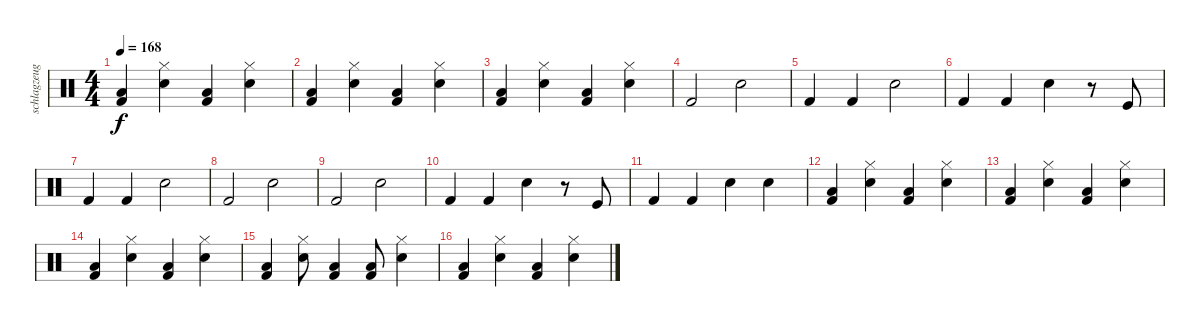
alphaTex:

\track ("schlagzeug" "schlagzeug") {instrument percussion}
\staff {score}
\articulation defaults
\ts (4 4)
\tempo 168
\clef neutral
\ks c
("Low Floor Tom (hit)" "Kick (hit) 2").4{dy f} ("Electric Snare (hit)" "Hi-Hat (closed)").4 ("Low Floor Tom (hit)" "Kick (hit) 2").4 ("Electric Snare (hit)" "Hi-Hat (closed)").4 |
("Low Floor Tom (hit)" "Kick (hit) 2").4 ("Electric Snare (hit)" "Hi-Hat (closed)").4 ("Low Floor Tom (hit)" "Kick (hit) 2").4 ("Electric Snare (hit)" "Hi-Hat (closed)").4 |
("Low Floor Tom (hit)" "Kick (hit) 2").4 ("Electric Snare (hit)" "Hi-Hat (closed)").4 ("Low Floor Tom (hit)" "Kick (hit) 2").4 ("Electric Snare (hit)" "Hi-Hat (closed)").4 |
"Kick (hit) 2".2 "Electric Snare (hit)".2 |
"Kick (hit) 2".4 "Kick (hit) 2".4 "Electric Snare (hit)".2 |
"Kick (hit) 2".4 "Kick (hit) 2".4 "Electric Snare (hit)".4 r.8 "Kick (hit)".8 |
"Kick (hit) 2".4 "Kick (hit) 2".4 "Electric Snare (hit)".2 |
"Kick (hit) 2".2 "Electric Snare (hit)".2 |
"Kick (hit) 2".2 "Electric Snare (hit)".2 |
"Kick (hit) 2".4 "Kick (hit) 2".4 "Electric Snare (hit)".4 r.8 "Kick (hit)".8 |
"Kick (hit) 2".4 "Kick (hit) 2".4 "Electric Snare (hit)".4 "Electric Snare (hit)".4 |
("Low Floor Tom (hit)" "Kick (hit) 2").4 ("Electric Snare (hit)" "Hi-Hat (closed)").4 ("Low Floor Tom (hit)" "Kick (hit) 2").4 ("Electric Snare (hit)" "Hi-Hat (closed)").4 |
("Low Floor Tom (hit)" "Kick (hit) 2").4 ("Electric Snare (hit)" "Hi-Hat (closed)").4 ("Low Floor Tom (hit)" "Kick (hit) 2").4 ("Electric Snare (hit)" "Hi-Hat (closed)").4 |
("Low Floor Tom (hit)" "Kick (hit) 2").4 ("Electric Snare (hit)" "Hi-Hat (closed)").4 ("Low Floor Tom (hit)" "Kick (hit) 2").4 ("Electric Snare (hit)" "Hi-Hat (closed)").4 |
("Low Floor Tom (hit)" "Kick (hit) 2").4 ("Electric Snare (hit)" "Hi-Hat (closed)").8 ("Low Floor Tom (hit)" "Kick (hit) 2").4 ("Low Floor Tom (hit)" "Kick (hit) 2").8 ("Electric Snare (hit)" "Hi-Hat (closed)").4 |
("Low Floor Tom (hit)" "Kick (hit) 2").4 ("Electric Snare (hit)" "Hi-Hat (closed)").4 ("Low Floor Tom (hit)" "Kick (hit) 2").4 ("Electric Snare (hit)" "Hi-Hat (closed)").4
